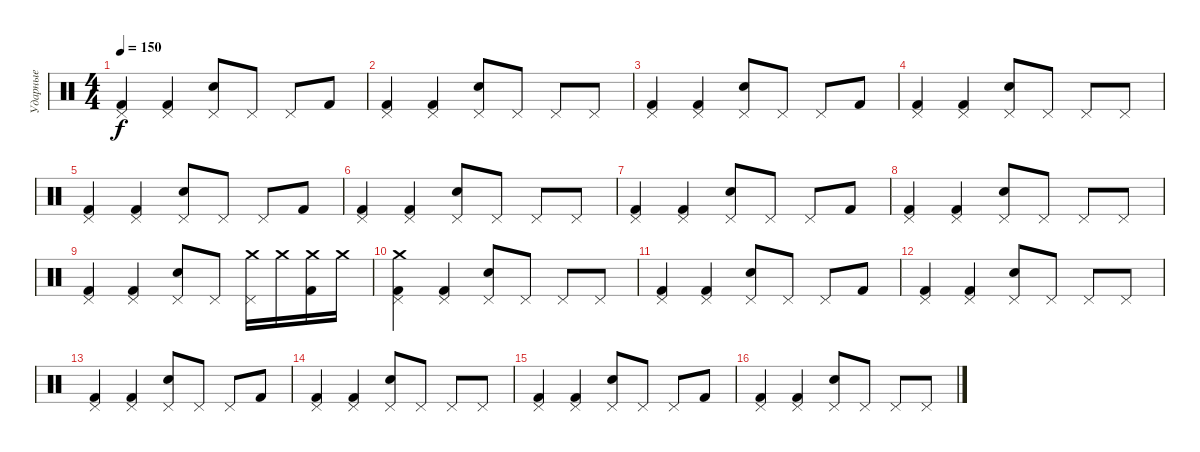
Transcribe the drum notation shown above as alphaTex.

\track ("Ударные" "Ударные") {instrument percussion}
\staff {score}
\articulation defaults
\ts (4 4)
\tempo 150
\clef neutral
\ks c
("Pedal Hi-Hat (hit)" "Kick (hit) 2").4{dy f} ("Pedal Hi-Hat (hit)" "Kick (hit) 2").4 ("Pedal Hi-Hat (hit)" "Snare (hit) 2").8 "Pedal Hi-Hat (hit)".8 "Pedal Hi-Hat (hit)".8 "Kick (hit) 2".8 |
("Pedal Hi-Hat (hit)" "Kick (hit) 2").4 ("Pedal Hi-Hat (hit)" "Kick (hit) 2").4 ("Pedal Hi-Hat (hit)" "Snare (hit) 2").8 "Pedal Hi-Hat (hit)".8 "Pedal Hi-Hat (hit)".8 "Pedal Hi-Hat (hit)".8 |
("Pedal Hi-Hat (hit)" "Kick (hit) 2").4 ("Pedal Hi-Hat (hit)" "Kick (hit) 2").4 ("Pedal Hi-Hat (hit)" "Snare (hit) 2").8 "Pedal Hi-Hat (hit)".8 "Pedal Hi-Hat (hit)".8 "Kick (hit) 2".8 |
("Pedal Hi-Hat (hit)" "Kick (hit) 2").4 ("Pedal Hi-Hat (hit)" "Kick (hit) 2").4 ("Pedal Hi-Hat (hit)" "Snare (hit) 2").8 "Pedal Hi-Hat (hit)".8 "Pedal Hi-Hat (hit)".8 "Pedal Hi-Hat (hit)".8 |
("Pedal Hi-Hat (hit)" "Kick (hit) 2").4 ("Pedal Hi-Hat (hit)" "Kick (hit) 2").4 ("Pedal Hi-Hat (hit)" "Snare (hit) 2").8 "Pedal Hi-Hat (hit)".8 "Pedal Hi-Hat (hit)".8 "Kick (hit) 2".8 |
("Pedal Hi-Hat (hit)" "Kick (hit) 2").4 ("Pedal Hi-Hat (hit)" "Kick (hit) 2").4 ("Pedal Hi-Hat (hit)" "Snare (hit) 2").8 "Pedal Hi-Hat (hit)".8 "Pedal Hi-Hat (hit)".8 "Pedal Hi-Hat (hit)".8 |
("Pedal Hi-Hat (hit)" "Kick (hit) 2").4 ("Pedal Hi-Hat (hit)" "Kick (hit) 2").4 ("Pedal Hi-Hat (hit)" "Snare (hit) 2").8 "Pedal Hi-Hat (hit)".8 "Pedal Hi-Hat (hit)".8 "Kick (hit) 2".8 |
("Pedal Hi-Hat (hit)" "Kick (hit) 2").4 ("Pedal Hi-Hat (hit)" "Kick (hit) 2").4 ("Pedal Hi-Hat (hit)" "Snare (hit) 2").8 "Pedal Hi-Hat (hit)".8 "Pedal Hi-Hat (hit)".8 "Pedal Hi-Hat (hit)".8 |
("Pedal Hi-Hat (hit)" "Kick (hit) 2").4 ("Pedal Hi-Hat (hit)" "Kick (hit) 2").4 ("Pedal Hi-Hat (hit)" "Snare (hit) 2").8 "Pedal Hi-Hat (hit)".8 ("Crash medium (hit)" "Pedal Hi-Hat (hit)").16 "Crash medium (hit)".16 ("Crash medium (hit)" "Kick (hit) 2").16 "Crash medium (hit)".16 |
("Crash medium (hit)" "Pedal Hi-Hat (hit)" "Kick (hit) 2").4 ("Pedal Hi-Hat (hit)" "Kick (hit) 2").4 ("Pedal Hi-Hat (hit)" "Snare (hit) 2").8 "Pedal Hi-Hat (hit)".8 "Pedal Hi-Hat (hit)".8 "Pedal Hi-Hat (hit)".8 |
("Pedal Hi-Hat (hit)" "Kick (hit) 2").4 ("Pedal Hi-Hat (hit)" "Kick (hit) 2").4 ("Pedal Hi-Hat (hit)" "Snare (hit) 2").8 "Pedal Hi-Hat (hit)".8 "Pedal Hi-Hat (hit)".8 "Kick (hit) 2".8 |
("Pedal Hi-Hat (hit)" "Kick (hit) 2").4 ("Pedal Hi-Hat (hit)" "Kick (hit) 2").4 ("Pedal Hi-Hat (hit)" "Snare (hit) 2").8 "Pedal Hi-Hat (hit)".8 "Pedal Hi-Hat (hit)".8 "Pedal Hi-Hat (hit)".8 |
("Pedal Hi-Hat (hit)" "Kick (hit) 2").4 ("Pedal Hi-Hat (hit)" "Kick (hit) 2").4 ("Pedal Hi-Hat (hit)" "Snare (hit) 2").8 "Pedal Hi-Hat (hit)".8 "Pedal Hi-Hat (hit)".8 "Kick (hit) 2".8 |
("Pedal Hi-Hat (hit)" "Kick (hit) 2").4 ("Pedal Hi-Hat (hit)" "Kick (hit) 2").4 ("Pedal Hi-Hat (hit)" "Snare (hit) 2").8 "Pedal Hi-Hat (hit)".8 "Pedal Hi-Hat (hit)".8 "Pedal Hi-Hat (hit)".8 |
("Pedal Hi-Hat (hit)" "Kick (hit) 2").4 ("Pedal Hi-Hat (hit)" "Kick (hit) 2").4 ("Pedal Hi-Hat (hit)" "Snare (hit) 2").8 "Pedal Hi-Hat (hit)".8 "Pedal Hi-Hat (hit)".8 "Kick (hit) 2".8 |
("Pedal Hi-Hat (hit)" "Kick (hit) 2").4 ("Pedal Hi-Hat (hit)" "Kick (hit) 2").4 ("Pedal Hi-Hat (hit)" "Snare (hit) 2").8 "Pedal Hi-Hat (hit)".8 "Pedal Hi-Hat (hit)".8 "Pedal Hi-Hat (hit)".8
